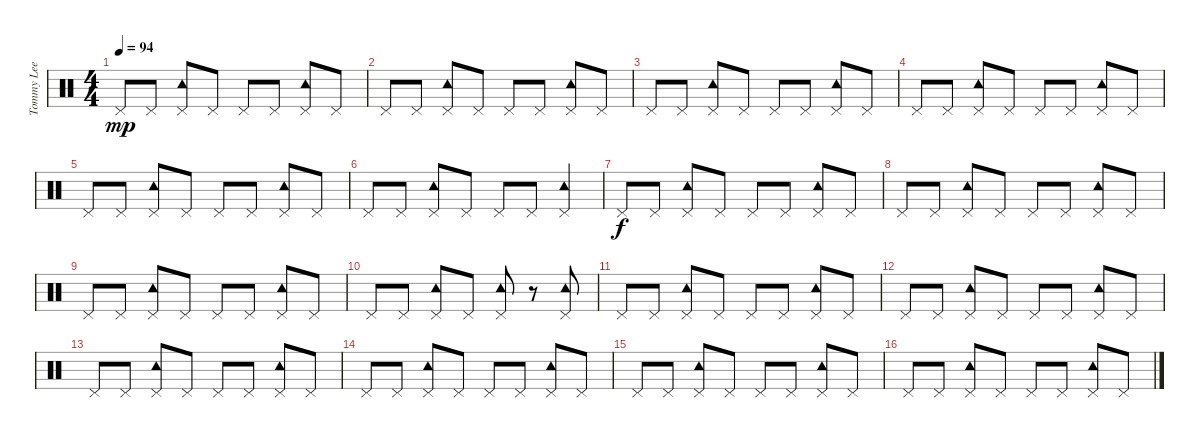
\track ("Tommy Lee" "Tommy Lee") {instrument percussion}
\staff {score}
\articulation defaults
\ts (4 4)
\tempo 94
\clef neutral
\ks c "Pedal Hi-Hat (hit)".8{dy mp} "Pedal Hi-Hat (hit)".8
("Pedal Hi-Hat (hit)" "Tambourine (hit)").8 "Pedal Hi-Hat (hit)".8 "Pedal Hi-Hat (hit)".8 "Pedal Hi-Hat (hit)".8 ("Pedal Hi-Hat (hit)" "Tambourine (hit)").8 "Pedal Hi-Hat (hit)".8 |
"Pedal Hi-Hat (hit)".8 "Pedal Hi-Hat (hit)".8 ("Pedal Hi-Hat (hit)" "Tambourine (hit)").8 "Pedal Hi-Hat (hit)".8 "Pedal Hi-Hat (hit)".8 "Pedal Hi-Hat (hit)".8 ("Pedal Hi-Hat (hit)" "Tambourine (hit)").8 "Pedal Hi-Hat (hit)".8 |
"Pedal Hi-Hat (hit)".8 "Pedal Hi-Hat (hit)".8 ("Pedal Hi-Hat (hit)" "Tambourine (hit)").8 "Pedal Hi-Hat (hit)".8 "Pedal Hi-Hat (hit)".8 "Pedal Hi-Hat (hit)".8 ("Pedal Hi-Hat (hit)" "Tambourine (hit)").8 "Pedal Hi-Hat (hit)".8 |
"Pedal Hi-Hat (hit)".8 "Pedal Hi-Hat (hit)".8 ("Pedal Hi-Hat (hit)" "Tambourine (hit)").8 "Pedal Hi-Hat (hit)".8 "Pedal Hi-Hat (hit)".8 "Pedal Hi-Hat (hit)".8 ("Pedal Hi-Hat (hit)" "Tambourine (hit)").8 "Pedal Hi-Hat (hit)".8 |
"Pedal Hi-Hat (hit)".8 "Pedal Hi-Hat (hit)".8 ("Pedal Hi-Hat (hit)" "Tambourine (hit)").8 "Pedal Hi-Hat (hit)".8 "Pedal Hi-Hat (hit)".8 "Pedal Hi-Hat (hit)".8 ("Pedal Hi-Hat (hit)" "Tambourine (hit)").8 "Pedal Hi-Hat (hit)".8 |
"Pedal Hi-Hat (hit)".8 "Pedal Hi-Hat (hit)".8 ("Pedal Hi-Hat (hit)" "Tambourine (hit)").8 "Pedal Hi-Hat (hit)".8 "Pedal Hi-Hat (hit)".8 "Pedal Hi-Hat (hit)".8 ("Pedal Hi-Hat (hit)" "Tambourine (hit)").4 |
"Pedal Hi-Hat (hit)".8{dy f} "Pedal Hi-Hat (hit)".8 ("Pedal Hi-Hat (hit)" "Tambourine (hit)").8 "Pedal Hi-Hat (hit)".8 "Pedal Hi-Hat (hit)".8 "Pedal Hi-Hat (hit)".8 ("Pedal Hi-Hat (hit)" "Tambourine (hit)").8 "Pedal Hi-Hat (hit)".8 |
"Pedal Hi-Hat (hit)".8 "Pedal Hi-Hat (hit)".8 ("Pedal Hi-Hat (hit)" "Tambourine (hit)").8 "Pedal Hi-Hat (hit)".8 "Pedal Hi-Hat (hit)".8 "Pedal Hi-Hat (hit)".8 ("Pedal Hi-Hat (hit)" "Tambourine (hit)").8 "Pedal Hi-Hat (hit)".8 |
"Pedal Hi-Hat (hit)".8 "Pedal Hi-Hat (hit)".8 ("Pedal Hi-Hat (hit)" "Tambourine (hit)").8 "Pedal Hi-Hat (hit)".8 "Pedal Hi-Hat (hit)".8 "Pedal Hi-Hat (hit)".8 ("Pedal Hi-Hat (hit)" "Tambourine (hit)").8 "Pedal Hi-Hat (hit)".8 |
"Pedal Hi-Hat (hit)".8 "Pedal Hi-Hat (hit)".8 ("Pedal Hi-Hat (hit)" "Tambourine (hit)").8 "Pedal Hi-Hat (hit)".8 ("Pedal Hi-Hat (hit)" "Tambourine (hit)").8 r.8 ("Pedal Hi-Hat (hit)" "Tambourine (hit)").8 |
"Pedal Hi-Hat (hit)".8 "Pedal Hi-Hat (hit)".8 ("Pedal Hi-Hat (hit)" "Tambourine (hit)").8 "Pedal Hi-Hat (hit)".8 "Pedal Hi-Hat (hit)".8 "Pedal Hi-Hat (hit)".8 ("Pedal Hi-Hat (hit)" "Tambourine (hit)").8 "Pedal Hi-Hat (hit)".8 |
"Pedal Hi-Hat (hit)".8 "Pedal Hi-Hat (hit)".8 ("Pedal Hi-Hat (hit)" "Tambourine (hit)").8 "Pedal Hi-Hat (hit)".8 "Pedal Hi-Hat (hit)".8 "Pedal Hi-Hat (hit)".8 ("Pedal Hi-Hat (hit)" "Tambourine (hit)").8 "Pedal Hi-Hat (hit)".8 |
"Pedal Hi-Hat (hit)".8 "Pedal Hi-Hat (hit)".8 ("Pedal Hi-Hat (hit)" "Tambourine (hit)").8 "Pedal Hi-Hat (hit)".8 "Pedal Hi-Hat (hit)".8 "Pedal Hi-Hat (hit)".8 ("Pedal Hi-Hat (hit)" "Tambourine (hit)").8 "Pedal Hi-Hat (hit)".8 |
"Pedal Hi-Hat (hit)".8 "Pedal Hi-Hat (hit)".8 ("Pedal Hi-Hat (hit)" "Tambourine (hit)").8 "Pedal Hi-Hat (hit)".8 "Pedal Hi-Hat (hit)".8 "Pedal Hi-Hat (hit)".8 ("Pedal Hi-Hat (hit)" "Tambourine (hit)").8 "Pedal Hi-Hat (hit)".8 |
"Pedal Hi-Hat (hit)".8 "Pedal Hi-Hat (hit)".8 ("Pedal Hi-Hat (hit)" "Tambourine (hit)").8 "Pedal Hi-Hat (hit)".8 "Pedal Hi-Hat (hit)".8 "Pedal Hi-Hat (hit)".8 ("Pedal Hi-Hat (hit)" "Tambourine (hit)").8 "Pedal Hi-Hat (hit)".8 |
"Pedal Hi-Hat (hit)".8 "Pedal Hi-Hat (hit)".8 ("Pedal Hi-Hat (hit)" "Tambourine (hit)").8 "Pedal Hi-Hat (hit)".8 "Pedal Hi-Hat (hit)".8 "Pedal Hi-Hat (hit)".8 ("Pedal Hi-Hat (hit)" "Tambourine (hit)").8 "Pedal Hi-Hat (hit)".8
